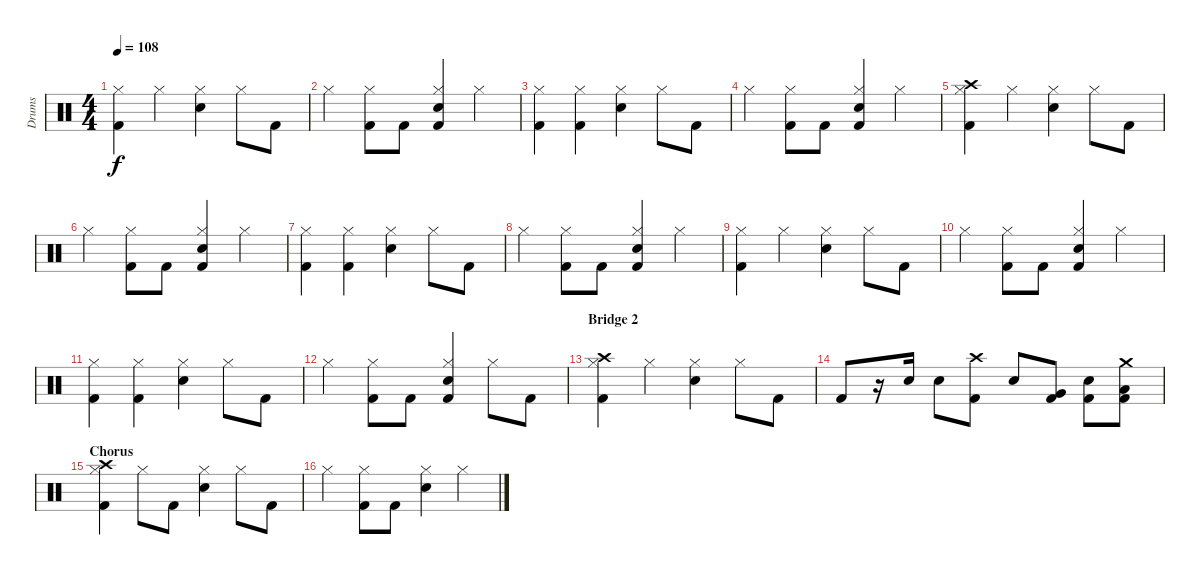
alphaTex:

\track ("Drums" "Drums") {instrument percussion}
\staff {score}
\articulation defaults
\ts (4 4)
\tempo 108
\clef neutral
\ks c
("Kick (hit) 2" "Hi-Hat (closed)").4{dy f} "Hi-Hat (closed)".4 ("Electric Snare (hit)" "Hi-Hat (closed)").4 "Hi-Hat (closed)".8 "Kick (hit) 2".8 |
"Hi-Hat (closed)".4 ("Kick (hit) 2" "Hi-Hat (closed)").8 "Kick (hit) 2".8 ("Kick (hit) 2" "Electric Snare (hit)" "Hi-Hat (closed)").4 "Hi-Hat (closed)".4 |
("Kick (hit) 2" "Hi-Hat (closed)").4 ("Kick (hit) 2" "Hi-Hat (closed)").4 ("Electric Snare (hit)" "Hi-Hat (closed)").4 "Hi-Hat (closed)".8 "Kick (hit) 2".8 |
"Hi-Hat (closed)".4 ("Kick (hit) 2" "Hi-Hat (closed)").8 "Kick (hit) 2".8 ("Kick (hit) 2" "Electric Snare (hit)" "Hi-Hat (closed)").4 "Hi-Hat (closed)".4 |
("Kick (hit) 2" "Hi-Hat (closed)" "Crash high (hit)").4 "Hi-Hat (closed)".4 ("Electric Snare (hit)" "Hi-Hat (closed)").4 "Hi-Hat (closed)".8 "Kick (hit) 2".8 |
"Hi-Hat (closed)".4 ("Kick (hit) 2" "Hi-Hat (closed)").8 "Kick (hit) 2".8 ("Kick (hit) 2" "Electric Snare (hit)" "Hi-Hat (closed)").4 "Hi-Hat (closed)".4 |
("Kick (hit) 2" "Hi-Hat (closed)").4 ("Kick (hit) 2" "Hi-Hat (closed)").4 ("Electric Snare (hit)" "Hi-Hat (closed)").4 "Hi-Hat (closed)".8 "Kick (hit) 2".8 |
"Hi-Hat (closed)".4 ("Kick (hit) 2" "Hi-Hat (closed)").8 "Kick (hit) 2".8 ("Kick (hit) 2" "Electric Snare (hit)" "Hi-Hat (closed)").4 "Hi-Hat (closed)".4 |
("Kick (hit) 2" "Hi-Hat (closed)").4 "Hi-Hat (closed)".4 ("Electric Snare (hit)" "Hi-Hat (closed)").4 "Hi-Hat (closed)".8 "Kick (hit) 2".8 |
"Hi-Hat (closed)".4 ("Kick (hit) 2" "Hi-Hat (closed)").8 "Kick (hit) 2".8 ("Kick (hit) 2" "Electric Snare (hit)" "Hi-Hat (closed)").4 "Hi-Hat (closed)".4 |
("Kick (hit) 2" "Hi-Hat (closed)").4 ("Kick (hit) 2" "Hi-Hat (closed)").4 ("Electric Snare (hit)" "Hi-Hat (closed)").4 "Hi-Hat (closed)".8 "Kick (hit) 2".8 |
"Hi-Hat (closed)".4 ("Kick (hit) 2" "Hi-Hat (closed)").8 "Kick (hit) 2".8 ("Kick (hit) 2" "Electric Snare (hit)" "Hi-Hat (closed)").4 "Hi-Hat (closed)".8 "Kick (hit) 2".8 |
\section ("" "Bridge 2")
("Kick (hit) 2" "Hi-Hat (closed)" "Crash high (hit)").4 "Hi-Hat (closed)".4 ("Electric Snare (hit)" "Hi-Hat (closed)").4 "Hi-Hat (closed)".8 "Kick (hit) 2".8 |
"Kick (hit) 2".8 r.16 "Electric Snare (hit)".16 "Electric Snare (hit)".8 ("Kick (hit) 2" "Crash high (hit)").8 "Electric Snare (hit)".8 ("Kick (hit) 2" "Very Low Tom (hit)").8 ("Kick (hit) 2" "Electric Snare (hit)").8 ("Kick (hit) 2" "Low Floor Tom (hit)" "Crash medium (hit)").8 |
\section ("" "Chorus")
("Kick (hit) 2" "Hi-Hat (closed)" "Crash high (hit)").4 "Hi-Hat (closed)".8 "Kick (hit) 2".8 ("Electric Snare (hit)" "Hi-Hat (closed)").4 "Hi-Hat (closed)".8 "Kick (hit) 2".8 |
"Hi-Hat (closed)".4 ("Kick (hit) 2" "Hi-Hat (closed)").8 "Kick (hit) 2".8 ("Electric Snare (hit)" "Hi-Hat (closed)").4 "Hi-Hat (closed)".4
